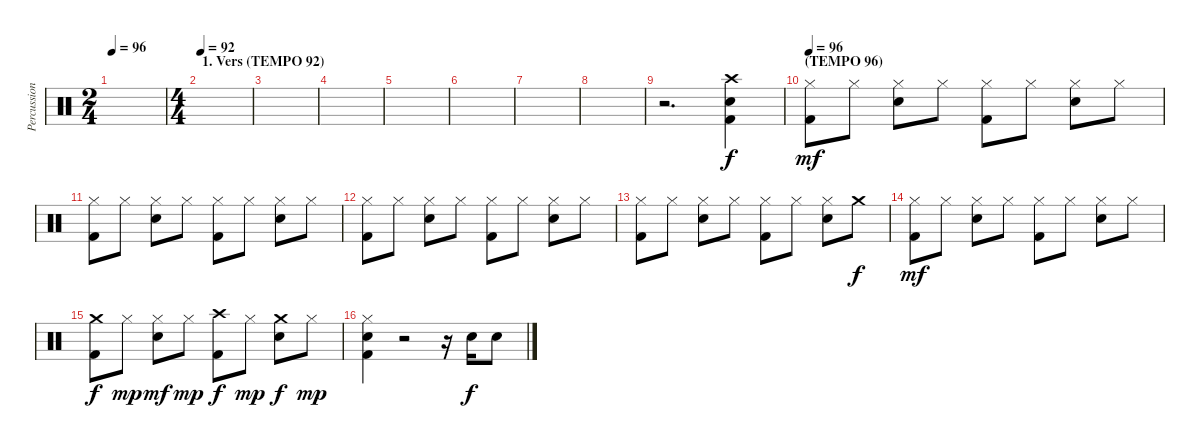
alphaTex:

\track ("Percussion - Roger Taylor" "Percussion") {instrument percussion}
\staff {score}
\articulation defaults
\ts (2 4)
\tempo 96
\clef neutral
\ks c
|
\ts (4 4)
\section ("" "1. Vers (TEMPO 92)")
\tempo 92
|
|
|
|
|
|
|
r.2{d} ("Crash high (hit)" "Electric Snare (hit)" "Kick (hit) 2").4 |
\section ("" "(TEMPO 96)")
\tempo 96
("Hi-Hat (closed)" "Kick (hit) 2").8{dy mf} "Hi-Hat (closed)".8 ("Hi-Hat (closed)" "Electric Snare (hit)").8 "Hi-Hat (closed)".8 ("Hi-Hat (closed)" "Kick (hit) 2").8 "Hi-Hat (closed)".8 ("Hi-Hat (closed)" "Electric Snare (hit)").8 "Hi-Hat (closed)".8 |
("Hi-Hat (closed)" "Kick (hit) 2").8 "Hi-Hat (closed)".8 ("Hi-Hat (closed)" "Electric Snare (hit)").8 "Hi-Hat (closed)".8 ("Hi-Hat (closed)" "Kick (hit) 2").8 "Hi-Hat (closed)".8 ("Hi-Hat (closed)" "Electric Snare (hit)").8 "Hi-Hat (closed)".8 |
("Hi-Hat (closed)" "Kick (hit) 2").8 "Hi-Hat (closed)".8 ("Hi-Hat (closed)" "Electric Snare (hit)").8 "Hi-Hat (closed)".8 ("Hi-Hat (closed)" "Kick (hit) 2").8 "Hi-Hat (closed)".8 ("Hi-Hat (closed)" "Electric Snare (hit)").8 "Hi-Hat (closed)".8 |
("Hi-Hat (closed)" "Kick (hit) 2").8 "Hi-Hat (closed)".8 ("Hi-Hat (closed)" "Electric Snare (hit)").8 "Hi-Hat (closed)".8 ("Hi-Hat (closed)" "Kick (hit) 2").8 "Hi-Hat (closed)".8 ("Hi-Hat (closed)" "Electric Snare (hit)").8 "Crash medium (hit)".8{dy f} |
("Hi-Hat (closed)" "Kick (hit) 2").8{dy mf} "Hi-Hat (closed)".8 ("Hi-Hat (closed)" "Electric Snare (hit)").8 "Hi-Hat (closed)".8 ("Hi-Hat (closed)" "Kick (hit) 2").8 "Hi-Hat (closed)".8 ("Hi-Hat (closed)" "Electric Snare (hit)").8 "Hi-Hat (closed)".8 |
("Crash medium (hit)" "Kick (hit) 2").8{dy f} "Hi-Hat (closed)".8{dy mp} ("Hi-Hat (closed)" "Electric Snare (hit)").8{dy mf} "Hi-Hat (closed)".8{dy mp} ("Crash high (hit)" "Kick (hit) 2").8{dy f} "Hi-Hat (closed)".8{dy mp} ("Crash medium (hit)" "Electric Snare (hit)").8{dy f} "Hi-Hat (closed)".8{dy mp} |
("Hi-Hat (closed)" "Electric Snare (hit)" "Kick (hit) 2").4 r.2 r.16 "Electric Snare (hit)".16{dy f} "Electric Snare (hit)".8
